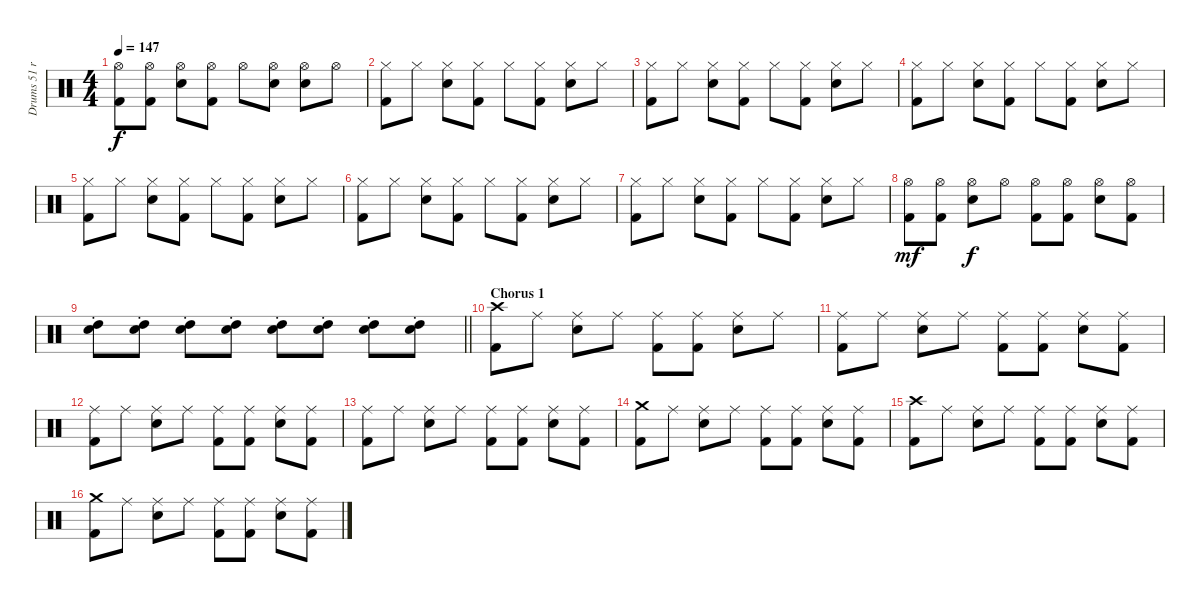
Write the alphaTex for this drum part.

\track ("Drums 51 ride" "Drums 51 r") {mute instrument percussion}
\staff {score}
\articulation defaults
\ts (4 4)
\tempo 147
\clef neutral
\ks c
("Hi-Hat (open)" "Kick (hit) 2").8{dy f} ("Hi-Hat (open)" "Kick (hit) 2").8 ("Hi-Hat (open)" "Snare (hit) 2").8 ("Hi-Hat (open)" "Kick (hit) 2").8 "Hi-Hat (open)".8 ("Hi-Hat (open)" "Snare (hit) 2").8 ("Hi-Hat (open)" "Snare (hit) 2").8 "Hi-Hat (open)".8 |
("Hi-Hat (closed)" "Kick (hit) 2").8 "Hi-Hat (closed)".8 ("Hi-Hat (closed)" "Snare (hit) 2").8 ("Hi-Hat (closed)" "Kick (hit) 2").8 "Hi-Hat (closed)".8 ("Hi-Hat (closed)" "Kick (hit) 2").8 ("Hi-Hat (closed)" "Snare (hit) 2").8 "Hi-Hat (closed)".8 |
("Hi-Hat (closed)" "Kick (hit) 2").8 "Hi-Hat (closed)".8 ("Hi-Hat (closed)" "Snare (hit) 2").8 ("Hi-Hat (closed)" "Kick (hit) 2").8 "Hi-Hat (closed)".8 ("Hi-Hat (closed)" "Kick (hit) 2").8 ("Hi-Hat (closed)" "Snare (hit) 2").8 "Hi-Hat (closed)".8 |
("Hi-Hat (closed)" "Kick (hit) 2").8 "Hi-Hat (closed)".8 ("Hi-Hat (closed)" "Snare (hit) 2").8 ("Hi-Hat (closed)" "Kick (hit) 2").8 "Hi-Hat (closed)".8 ("Hi-Hat (closed)" "Kick (hit) 2").8 ("Hi-Hat (closed)" "Snare (hit) 2").8 "Hi-Hat (closed)".8 |
("Hi-Hat (closed)" "Kick (hit) 2").8 "Hi-Hat (closed)".8 ("Hi-Hat (closed)" "Snare (hit) 2").8 ("Hi-Hat (closed)" "Kick (hit) 2").8 "Hi-Hat (closed)".8 ("Hi-Hat (closed)" "Kick (hit) 2").8 ("Hi-Hat (closed)" "Snare (hit) 2").8 "Hi-Hat (closed)".8 |
("Hi-Hat (closed)" "Kick (hit) 2").8 "Hi-Hat (closed)".8 ("Hi-Hat (closed)" "Snare (hit) 2").8 ("Hi-Hat (closed)" "Kick (hit) 2").8 "Hi-Hat (closed)".8 ("Hi-Hat (closed)" "Kick (hit) 2").8 ("Hi-Hat (closed)" "Snare (hit) 2").8 "Hi-Hat (closed)".8 |
("Hi-Hat (closed)" "Kick (hit) 2").8 "Hi-Hat (closed)".8 ("Hi-Hat (closed)" "Snare (hit) 2").8 ("Hi-Hat (closed)" "Kick (hit) 2").8 "Hi-Hat (closed)".8 ("Hi-Hat (closed)" "Kick (hit) 2").8 ("Hi-Hat (closed)" "Snare (hit) 2").8 "Hi-Hat (closed)".8 |
("Hi-Hat (open)" "Kick (hit) 2").8{dy mf} ("Hi-Hat (open)" "Kick (hit) 2").8 ("Hi-Hat (open)" "Snare (hit) 2").8{dy f} "Hi-Hat (open)".8 ("Hi-Hat (open)" "Kick (hit) 2").8 ("Hi-Hat (open)" "Kick (hit) 2").8 ("Hi-Hat (open)" "Snare (hit) 2").8 ("Hi-Hat (open)" "Kick (hit) 2").8 |
\barLineRight lightlight
("High Tom (hit)" "Snare (hit) 2"{st}).8 ("High Tom (hit)" "Snare (hit) 2"{st}).8 ("High Tom (hit)" "Snare (hit) 2"{st}).8 ("High Tom (hit)" "Snare (hit) 2"{st}).8 ("High Tom (hit)" "Snare (hit) 2"{st}).8 ("High Tom (hit)" "Snare (hit) 2"{st}).8 ("High Tom (hit)" "Snare (hit) 2"{st}).8 ("High Tom (hit)" "Snare (hit) 2"{st}).8 |
\section ("" "Chorus 1")
("Crash high (hit)" "Kick (hit) 2").8 "Ride (middle)".8 ("Ride (middle)" "Snare (hit) 2").8 "Ride (middle)".8 ("Ride (middle)" "Kick (hit) 2").8 ("Ride (middle)" "Kick (hit) 2").8 ("Ride (middle)" "Snare (hit) 2").8 "Ride (middle)".8 |
("Ride (middle)" "Kick (hit) 2").8 "Ride (middle)".8 ("Ride (middle)" "Snare (hit) 2").8 "Ride (middle)".8 ("Ride (middle)" "Kick (hit) 2").8 ("Ride (middle)" "Kick (hit) 2").8 ("Ride (middle)" "Snare (hit) 2").8 ("Ride (middle)" "Kick (hit) 2").8 |
("Ride (middle)" "Kick (hit) 2").8 "Ride (middle)".8 ("Ride (middle)" "Snare (hit) 2").8 "Ride (middle)".8 ("Ride (middle)" "Kick (hit) 2").8 ("Ride (middle)" "Kick (hit) 2").8 ("Ride (middle)" "Snare (hit) 2").8 ("Ride (middle)" "Kick (hit) 2").8 |
("Ride (middle)" "Kick (hit) 2").8 "Ride (middle)".8 ("Ride (middle)" "Snare (hit) 2").8 "Ride (middle)".8 ("Ride (middle)" "Kick (hit) 2").8 ("Ride (middle)" "Kick (hit) 2").8 ("Ride (middle)" "Snare (hit) 2").8 ("Ride (middle)" "Kick (hit) 2").8 |
("Crash medium (hit)" "Kick (hit) 2").8 "Ride (middle)".8 ("Ride (middle)" "Snare (hit) 2").8 "Ride (middle)".8 ("Ride (middle)" "Kick (hit) 2").8 ("Ride (middle)" "Kick (hit) 2").8 ("Ride (middle)" "Snare (hit) 2").8 ("Ride (middle)" "Kick (hit) 2").8 |
("Crash high (hit)" "Kick (hit) 2").8 "Ride (middle)".8 ("Ride (middle)" "Snare (hit) 2").8 "Ride (middle)".8 ("Ride (middle)" "Kick (hit) 2").8 ("Ride (middle)" "Kick (hit) 2").8 ("Ride (middle)" "Snare (hit) 2").8 ("Ride (middle)" "Kick (hit) 2").8 |
("Crash medium (hit)" "Kick (hit) 2").8 "Ride (middle)".8 ("Ride (middle)" "Snare (hit) 2").8 "Ride (middle)".8 ("Ride (middle)" "Kick (hit) 2").8 ("Ride (middle)" "Kick (hit) 2").8 ("Ride (middle)" "Snare (hit) 2").8 ("Ride (middle)" "Kick (hit) 2").8
